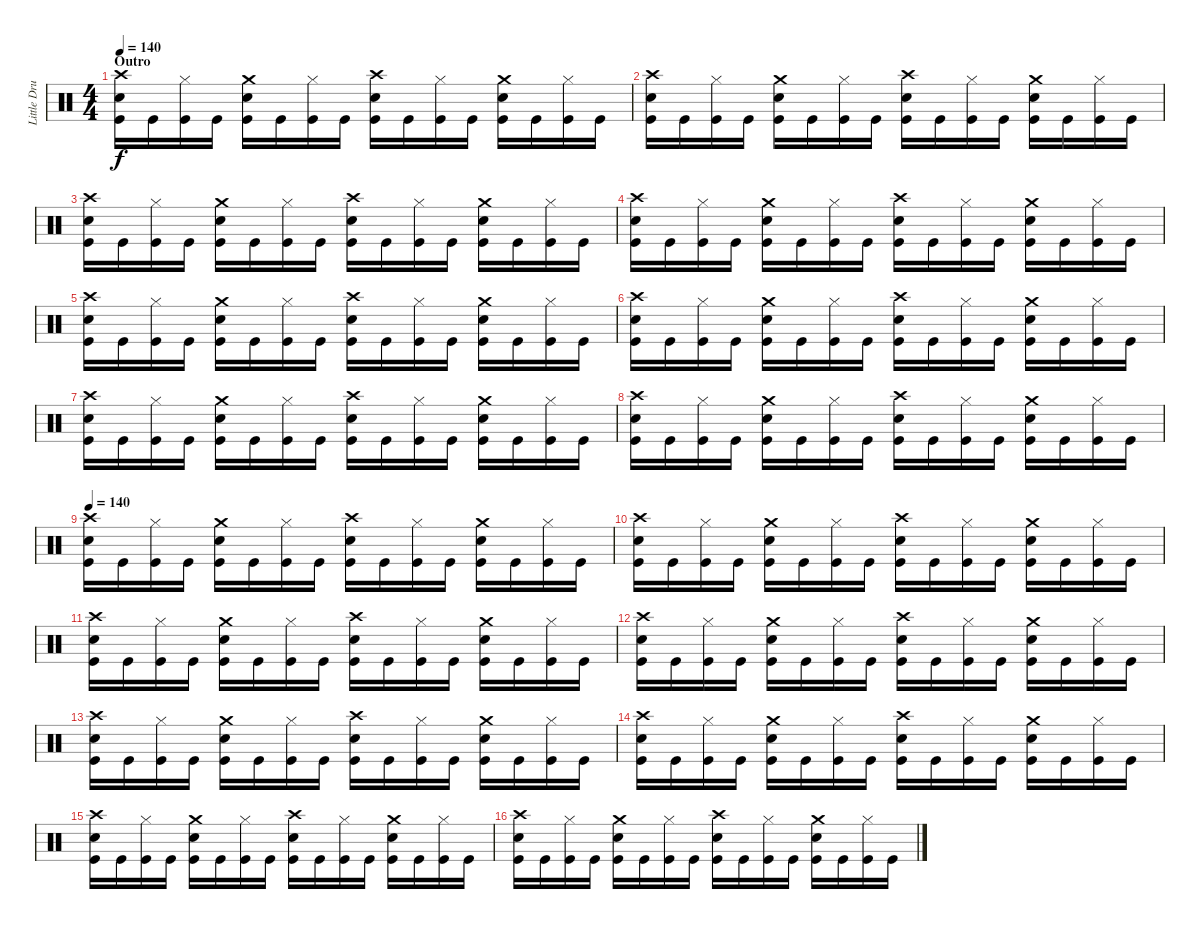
\track ("Little Drummer Boy" "Little Dru") {instrument percussion}
\staff {score}
\articulation defaults
\ts (4 4)
\section ("" "Outro")
\tempo 140
\clef neutral
\ks c
("Crash high (hit)" "Snare (hit) 2" "Kick (hit)").16{dy f} "Kick (hit)".16 ("Hi-Hat (closed)" "Kick (hit)").16 "Kick (hit)".16 ("Crash medium (hit)" "Snare (hit) 2" "Kick (hit)").16 "Kick (hit)".16 ("Hi-Hat (closed)" "Kick (hit)").16 "Kick (hit)".16 ("Crash high (hit)" "Snare (hit) 2" "Kick (hit)").16 "Kick (hit)".16 ("Hi-Hat (closed)" "Kick (hit)").16 "Kick (hit)".16 ("Crash medium (hit)" "Snare (hit) 2" "Kick (hit)").16 "Kick (hit)".16 ("Hi-Hat (closed)" "Kick (hit)").16 "Kick (hit)".16 |
("Crash high (hit)" "Snare (hit) 2" "Kick (hit)").16 "Kick (hit)".16 ("Hi-Hat (closed)" "Kick (hit)").16 "Kick (hit)".16 ("Crash medium (hit)" "Snare (hit) 2" "Kick (hit)").16 "Kick (hit)".16 ("Hi-Hat (closed)" "Kick (hit)").16 "Kick (hit)".16 ("Crash high (hit)" "Snare (hit) 2" "Kick (hit)").16 "Kick (hit)".16 ("Hi-Hat (closed)" "Kick (hit)").16 "Kick (hit)".16 ("Crash medium (hit)" "Snare (hit) 2" "Kick (hit)").16 "Kick (hit)".16 ("Hi-Hat (closed)" "Kick (hit)").16 "Kick (hit)".16 |
("Crash high (hit)" "Snare (hit) 2" "Kick (hit)").16 "Kick (hit)".16 ("Hi-Hat (closed)" "Kick (hit)").16 "Kick (hit)".16 ("Crash medium (hit)" "Snare (hit) 2" "Kick (hit)").16 "Kick (hit)".16 ("Hi-Hat (closed)" "Kick (hit)").16 "Kick (hit)".16 ("Crash high (hit)" "Snare (hit) 2" "Kick (hit)").16 "Kick (hit)".16 ("Hi-Hat (closed)" "Kick (hit)").16 "Kick (hit)".16 ("Crash medium (hit)" "Snare (hit) 2" "Kick (hit)").16 "Kick (hit)".16 ("Hi-Hat (closed)" "Kick (hit)").16 "Kick (hit)".16 |
("Crash high (hit)" "Snare (hit) 2" "Kick (hit)").16 "Kick (hit)".16 ("Hi-Hat (closed)" "Kick (hit)").16 "Kick (hit)".16 ("Crash medium (hit)" "Snare (hit) 2" "Kick (hit)").16 "Kick (hit)".16 ("Hi-Hat (closed)" "Kick (hit)").16 "Kick (hit)".16 ("Crash high (hit)" "Snare (hit) 2" "Kick (hit)").16 "Kick (hit)".16 ("Hi-Hat (closed)" "Kick (hit)").16 "Kick (hit)".16 ("Crash medium (hit)" "Snare (hit) 2" "Kick (hit)").16 "Kick (hit)".16 ("Hi-Hat (closed)" "Kick (hit)").16 "Kick (hit)".16 |
("Crash high (hit)" "Snare (hit) 2" "Kick (hit)").16 "Kick (hit)".16 ("Hi-Hat (closed)" "Kick (hit)").16 "Kick (hit)".16 ("Crash medium (hit)" "Snare (hit) 2" "Kick (hit)").16 "Kick (hit)".16 ("Hi-Hat (closed)" "Kick (hit)").16 "Kick (hit)".16 ("Crash high (hit)" "Snare (hit) 2" "Kick (hit)").16 "Kick (hit)".16 ("Hi-Hat (closed)" "Kick (hit)").16 "Kick (hit)".16 ("Crash medium (hit)" "Snare (hit) 2" "Kick (hit)").16 "Kick (hit)".16 ("Hi-Hat (closed)" "Kick (hit)").16 "Kick (hit)".16 |
("Crash high (hit)" "Snare (hit) 2" "Kick (hit)").16 "Kick (hit)".16 ("Hi-Hat (closed)" "Kick (hit)").16 "Kick (hit)".16 ("Crash medium (hit)" "Snare (hit) 2" "Kick (hit)").16 "Kick (hit)".16 ("Hi-Hat (closed)" "Kick (hit)").16 "Kick (hit)".16 ("Crash high (hit)" "Snare (hit) 2" "Kick (hit)").16 "Kick (hit)".16 ("Hi-Hat (closed)" "Kick (hit)").16 "Kick (hit)".16 ("Crash medium (hit)" "Snare (hit) 2" "Kick (hit)").16 "Kick (hit)".16 ("Hi-Hat (closed)" "Kick (hit)").16 "Kick (hit)".16 |
("Crash high (hit)" "Snare (hit) 2" "Kick (hit)").16 "Kick (hit)".16 ("Hi-Hat (closed)" "Kick (hit)").16 "Kick (hit)".16 ("Crash medium (hit)" "Snare (hit) 2" "Kick (hit)").16 "Kick (hit)".16 ("Hi-Hat (closed)" "Kick (hit)").16 "Kick (hit)".16 ("Crash high (hit)" "Snare (hit) 2" "Kick (hit)").16 "Kick (hit)".16 ("Hi-Hat (closed)" "Kick (hit)").16 "Kick (hit)".16 ("Crash medium (hit)" "Snare (hit) 2" "Kick (hit)").16 "Kick (hit)".16 ("Hi-Hat (closed)" "Kick (hit)").16 "Kick (hit)".16 |
("Crash high (hit)" "Snare (hit) 2" "Kick (hit)").16 "Kick (hit)".16 ("Hi-Hat (closed)" "Kick (hit)").16 "Kick (hit)".16 ("Crash medium (hit)" "Snare (hit) 2" "Kick (hit)").16 "Kick (hit)".16 ("Hi-Hat (closed)" "Kick (hit)").16 "Kick (hit)".16 ("Crash high (hit)" "Snare (hit) 2" "Kick (hit)").16 "Kick (hit)".16 ("Hi-Hat (closed)" "Kick (hit)").16 "Kick (hit)".16 ("Crash medium (hit)" "Snare (hit) 2" "Kick (hit)").16 "Kick (hit)".16 ("Hi-Hat (closed)" "Kick (hit)").16 "Kick (hit)".16 |
\tempo 140
("Crash high (hit)" "Snare (hit) 2" "Kick (hit)").16 "Kick (hit)".16 ("Hi-Hat (closed)" "Kick (hit)").16 "Kick (hit)".16 ("Crash medium (hit)" "Snare (hit) 2" "Kick (hit)").16 "Kick (hit)".16 ("Hi-Hat (closed)" "Kick (hit)").16 "Kick (hit)".16 ("Crash high (hit)" "Snare (hit) 2" "Kick (hit)").16 "Kick (hit)".16 ("Hi-Hat (closed)" "Kick (hit)").16 "Kick (hit)".16 ("Crash medium (hit)" "Snare (hit) 2" "Kick (hit)").16 "Kick (hit)".16 ("Hi-Hat (closed)" "Kick (hit)").16 "Kick (hit)".16 |
("Crash high (hit)" "Snare (hit) 2" "Kick (hit)").16 "Kick (hit)".16 ("Hi-Hat (closed)" "Kick (hit)").16 "Kick (hit)".16 ("Crash medium (hit)" "Snare (hit) 2" "Kick (hit)").16 "Kick (hit)".16 ("Hi-Hat (closed)" "Kick (hit)").16 "Kick (hit)".16 ("Crash high (hit)" "Snare (hit) 2" "Kick (hit)").16 "Kick (hit)".16 ("Hi-Hat (closed)" "Kick (hit)").16 "Kick (hit)".16 ("Crash medium (hit)" "Snare (hit) 2" "Kick (hit)").16 "Kick (hit)".16 ("Hi-Hat (closed)" "Kick (hit)").16 "Kick (hit)".16 |
("Crash high (hit)" "Snare (hit) 2" "Kick (hit)").16 "Kick (hit)".16 ("Hi-Hat (closed)" "Kick (hit)").16 "Kick (hit)".16 ("Crash medium (hit)" "Snare (hit) 2" "Kick (hit)").16 "Kick (hit)".16 ("Hi-Hat (closed)" "Kick (hit)").16 "Kick (hit)".16 ("Crash high (hit)" "Snare (hit) 2" "Kick (hit)").16 "Kick (hit)".16 ("Hi-Hat (closed)" "Kick (hit)").16 "Kick (hit)".16 ("Crash medium (hit)" "Snare (hit) 2" "Kick (hit)").16 "Kick (hit)".16 ("Hi-Hat (closed)" "Kick (hit)").16 "Kick (hit)".16 |
("Crash high (hit)" "Snare (hit) 2" "Kick (hit)").16 "Kick (hit)".16 ("Hi-Hat (closed)" "Kick (hit)").16 "Kick (hit)".16 ("Crash medium (hit)" "Snare (hit) 2" "Kick (hit)").16 "Kick (hit)".16 ("Hi-Hat (closed)" "Kick (hit)").16 "Kick (hit)".16 ("Crash high (hit)" "Snare (hit) 2" "Kick (hit)").16 "Kick (hit)".16 ("Hi-Hat (closed)" "Kick (hit)").16 "Kick (hit)".16 ("Crash medium (hit)" "Snare (hit) 2" "Kick (hit)").16 "Kick (hit)".16 ("Hi-Hat (closed)" "Kick (hit)").16 "Kick (hit)".16 |
("Crash high (hit)" "Snare (hit) 2" "Kick (hit)").16 "Kick (hit)".16 ("Hi-Hat (closed)" "Kick (hit)").16 "Kick (hit)".16 ("Crash medium (hit)" "Snare (hit) 2" "Kick (hit)").16 "Kick (hit)".16 ("Hi-Hat (closed)" "Kick (hit)").16 "Kick (hit)".16 ("Crash high (hit)" "Snare (hit) 2" "Kick (hit)").16 "Kick (hit)".16 ("Hi-Hat (closed)" "Kick (hit)").16 "Kick (hit)".16 ("Crash medium (hit)" "Snare (hit) 2" "Kick (hit)").16 "Kick (hit)".16 ("Hi-Hat (closed)" "Kick (hit)").16 "Kick (hit)".16 |
("Crash high (hit)" "Snare (hit) 2" "Kick (hit)").16 "Kick (hit)".16 ("Hi-Hat (closed)" "Kick (hit)").16 "Kick (hit)".16 ("Crash medium (hit)" "Snare (hit) 2" "Kick (hit)").16 "Kick (hit)".16 ("Hi-Hat (closed)" "Kick (hit)").16 "Kick (hit)".16 ("Crash high (hit)" "Snare (hit) 2" "Kick (hit)").16 "Kick (hit)".16 ("Hi-Hat (closed)" "Kick (hit)").16 "Kick (hit)".16 ("Crash medium (hit)" "Snare (hit) 2" "Kick (hit)").16 "Kick (hit)".16 ("Hi-Hat (closed)" "Kick (hit)").16 "Kick (hit)".16 |
("Crash high (hit)" "Snare (hit) 2" "Kick (hit)").16 "Kick (hit)".16 ("Hi-Hat (closed)" "Kick (hit)").16 "Kick (hit)".16 ("Crash medium (hit)" "Snare (hit) 2" "Kick (hit)").16 "Kick (hit)".16 ("Hi-Hat (closed)" "Kick (hit)").16 "Kick (hit)".16 ("Crash high (hit)" "Snare (hit) 2" "Kick (hit)").16 "Kick (hit)".16 ("Hi-Hat (closed)" "Kick (hit)").16 "Kick (hit)".16 ("Crash medium (hit)" "Snare (hit) 2" "Kick (hit)").16 "Kick (hit)".16 ("Hi-Hat (closed)" "Kick (hit)").16 "Kick (hit)".16 |
("Crash high (hit)" "Snare (hit) 2" "Kick (hit)").16 "Kick (hit)".16 ("Hi-Hat (closed)" "Kick (hit)").16 "Kick (hit)".16 ("Crash medium (hit)" "Snare (hit) 2" "Kick (hit)").16 "Kick (hit)".16 ("Hi-Hat (closed)" "Kick (hit)").16 "Kick (hit)".16 ("Crash high (hit)" "Snare (hit) 2" "Kick (hit)").16 "Kick (hit)".16 ("Hi-Hat (closed)" "Kick (hit)").16 "Kick (hit)".16 ("Crash medium (hit)" "Snare (hit) 2" "Kick (hit)").16 "Kick (hit)".16 ("Hi-Hat (closed)" "Kick (hit)").16 "Kick (hit)".16
